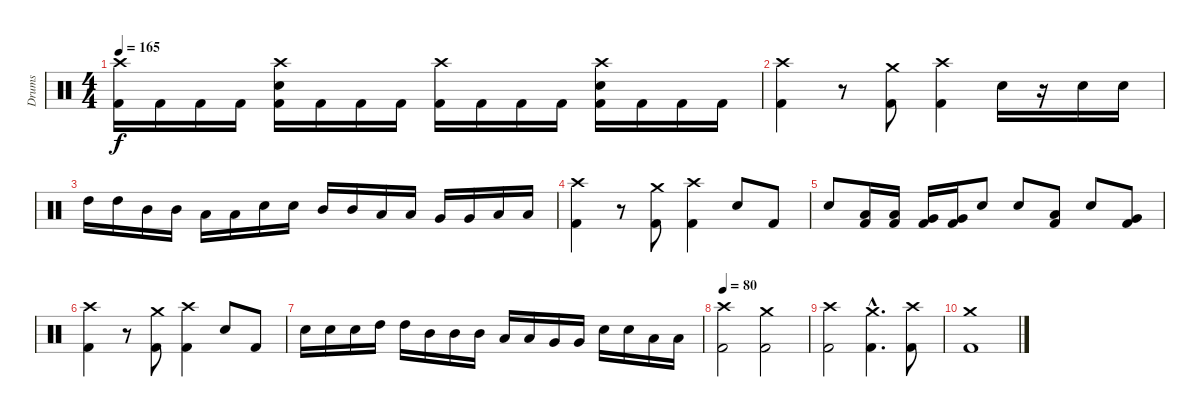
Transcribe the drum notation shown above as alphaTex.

\track ("Drums" "Drums") {instrument percussion}
\staff {score}
\articulation defaults
\ts (4 4)
\tempo 165
\clef neutral
\ks c
("Crash high (hit)" "Kick (hit) 2").16{dy f} "Kick (hit) 2".16 "Kick (hit) 2".16 "Kick (hit) 2".16 ("Crash high (hit)" "Electric Snare (hit)" "Kick (hit) 2").16 "Kick (hit) 2".16 "Kick (hit) 2".16 "Kick (hit) 2".16 ("Crash high (hit)" "Kick (hit) 2").16 "Kick (hit) 2".16 "Kick (hit) 2".16 "Kick (hit) 2".16 ("Crash high (hit)" "Electric Snare (hit)" "Kick (hit) 2").16 "Kick (hit) 2".16 "Kick (hit) 2".16 "Kick (hit) 2".16 |
("Crash high (hit)" "Kick (hit) 2").4 r.8 ("Crash medium (hit)" "Kick (hit) 2").8 ("Crash high (hit)" "Kick (hit) 2").4 "Electric Snare (hit)".16 r.16 "Electric Snare (hit)".16 "Electric Snare (hit)".16 |
"High Tom (hit)".16 "High Tom (hit)".16 "Mid Tom (hit)".16 "Mid Tom (hit)".16 "Low Tom (hit)".16 "Low Tom (hit)".16 "Electric Snare (hit)".16 "Electric Snare (hit)".16 "Mid Tom (hit)".16 "Mid Tom (hit)".16 "Low Tom (hit)".16 "Low Tom (hit)".16 "Very Low Tom (hit)".16 "Very Low Tom (hit)".16 "Low Floor Tom (hit)".16 "Low Floor Tom (hit)".16 |
("Crash high (hit)" "Kick (hit) 2").4 r.8 ("Crash medium (hit)" "Kick (hit) 2").8 ("Crash high (hit)" "Kick (hit) 2").4 "Electric Snare (hit)".8 "Kick (hit) 2".8 |
"Electric Snare (hit)".8 ("Low Tom (hit)" "Kick (hit) 2").16 ("Low Tom (hit)" "Kick (hit) 2").16 ("Very Low Tom (hit)" "Kick (hit) 2").16 ("Very Low Tom (hit)" "Kick (hit) 2").16 "Electric Snare (hit)".8 "Electric Snare (hit)".8 ("Low Tom (hit)" "Kick (hit) 2").8 "Electric Snare (hit)".8 ("Very Low Tom (hit)" "Kick (hit) 2").8 |
("Crash high (hit)" "Kick (hit) 2").4 r.8 ("Crash medium (hit)" "Kick (hit) 2").8 ("Crash high (hit)" "Kick (hit) 2").4 "Electric Snare (hit)".8 "Kick (hit) 2".8 |
"Electric Snare (hit)".16 "Electric Snare (hit)".16 "Electric Snare (hit)".16 "High Tom (hit)".16 "High Tom (hit)".16 "Mid Tom (hit)".16 "Mid Tom (hit)".16 "Mid Tom (hit)".16 "Low Tom (hit)".16 "Low Tom (hit)".16 "Very Low Tom (hit)".16 "Very Low Tom (hit)".16 "Electric Snare (hit)".16 "Electric Snare (hit)".16 "Low Floor Tom (hit)".16 "Low Floor Tom (hit)".16 |
\tempo 80
("Crash high (hit)" "Kick (hit) 2").2 ("Crash medium (hit)" "Kick (hit) 2").2 |
("Crash high (hit)" "Kick (hit) 2").2 ("Crash medium (hit)"{hac} "Kick (hit) 2"{hac}).4{d} ("Crash high (hit)" "Kick (hit) 2").8 |
("Crash medium (hit)" "Kick (hit) 2").1
